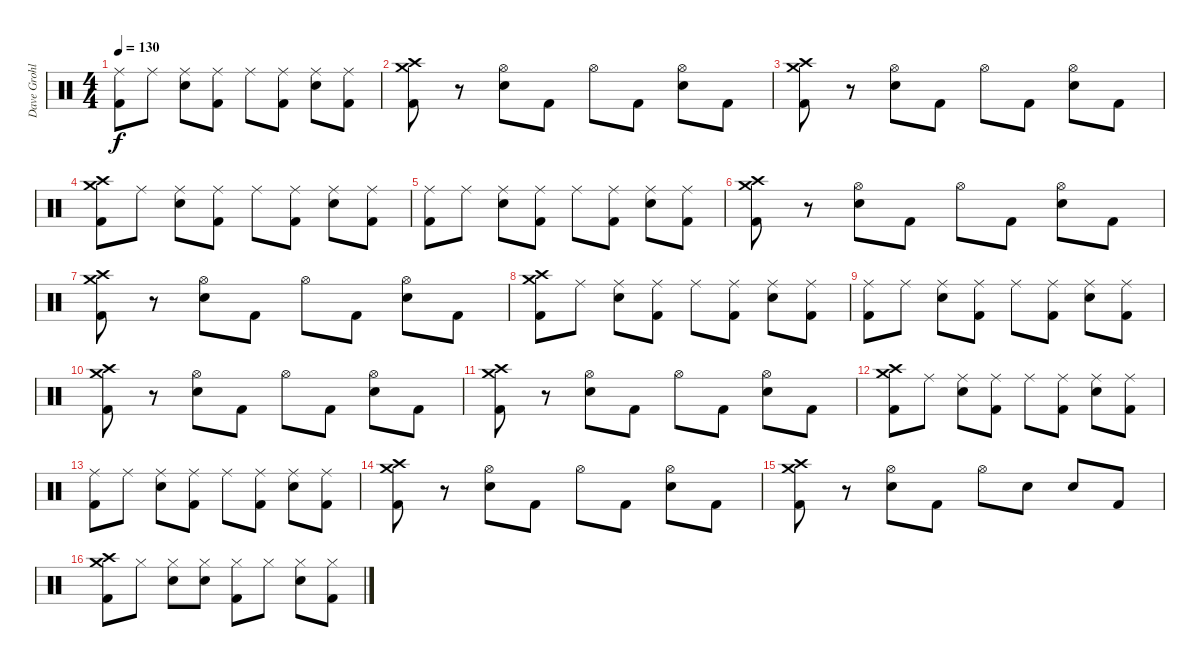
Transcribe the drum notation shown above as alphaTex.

\track ("Dave Grohl" "Dave Grohl") {instrument percussion}
\staff {score}
\articulation defaults
\ts (4 4)
\tempo 130
\clef neutral
\ks c
("Ride (middle)" "Kick (hit) 2").8{dy f} "Ride (middle)".8 ("Ride (middle)" "Snare (hit) 2").8 ("Ride (middle)" "Kick (hit) 2").8 "Ride (middle)".8 ("Ride (middle)" "Kick (hit) 2").8 ("Ride (middle)" "Snare (hit) 2").8 ("Ride (middle)" "Kick (hit) 2").8 |
("Crash high (hit)" "Crash medium (hit)" "Kick (hit) 2").8 r.8 ("Hi-Hat (open)" "Snare (hit) 2").8 "Kick (hit) 2".8 "Hi-Hat (open)".8 "Kick (hit) 2".8 ("Hi-Hat (open)" "Snare (hit) 2").8 "Kick (hit) 2".8 |
("Crash high (hit)" "Crash medium (hit)" "Kick (hit) 2").8 r.8 ("Hi-Hat (open)" "Snare (hit) 2").8 "Kick (hit) 2".8 "Hi-Hat (open)".8 "Kick (hit) 2".8 ("Hi-Hat (open)" "Snare (hit) 2").8 "Kick (hit) 2".8 |
("Crash high (hit)" "Crash medium (hit)" "Kick (hit) 2").8 "Ride (middle)".8 ("Ride (middle)" "Snare (hit) 2").8 ("Ride (middle)" "Kick (hit) 2").8 "Ride (middle)".8 ("Ride (middle)" "Kick (hit) 2").8 ("Ride (middle)" "Snare (hit) 2").8 ("Ride (middle)" "Kick (hit) 2").8 |
("Ride (middle)" "Kick (hit) 2").8 "Ride (middle)".8 ("Ride (middle)" "Snare (hit) 2").8 ("Ride (middle)" "Kick (hit) 2").8 "Ride (middle)".8 ("Ride (middle)" "Kick (hit) 2").8 ("Ride (middle)" "Snare (hit) 2").8 ("Ride (middle)" "Kick (hit) 2").8 |
("Crash high (hit)" "Crash medium (hit)" "Kick (hit) 2").8 r.8 ("Hi-Hat (open)" "Snare (hit) 2").8 "Kick (hit) 2".8 "Hi-Hat (open)".8 "Kick (hit) 2".8 ("Hi-Hat (open)" "Snare (hit) 2").8 "Kick (hit) 2".8 |
("Crash high (hit)" "Crash medium (hit)" "Kick (hit) 2").8 r.8 ("Hi-Hat (open)" "Snare (hit) 2").8 "Kick (hit) 2".8 "Hi-Hat (open)".8 "Kick (hit) 2".8 ("Hi-Hat (open)" "Snare (hit) 2").8 "Kick (hit) 2".8 |
("Crash high (hit)" "Crash medium (hit)" "Kick (hit) 2").8 "Ride (middle)".8 ("Ride (middle)" "Snare (hit) 2").8 ("Ride (middle)" "Kick (hit) 2").8 "Ride (middle)".8 ("Ride (middle)" "Kick (hit) 2").8 ("Ride (middle)" "Snare (hit) 2").8 ("Ride (middle)" "Kick (hit) 2").8 |
("Ride (middle)" "Kick (hit) 2").8 "Ride (middle)".8 ("Ride (middle)" "Snare (hit) 2").8 ("Ride (middle)" "Kick (hit) 2").8 "Ride (middle)".8 ("Ride (middle)" "Kick (hit) 2").8 ("Ride (middle)" "Snare (hit) 2").8 ("Ride (middle)" "Kick (hit) 2").8 |
("Crash high (hit)" "Crash medium (hit)" "Kick (hit) 2").8 r.8 ("Hi-Hat (open)" "Snare (hit) 2").8 "Kick (hit) 2".8 "Hi-Hat (open)".8 "Kick (hit) 2".8 ("Hi-Hat (open)" "Snare (hit) 2").8 "Kick (hit) 2".8 |
("Crash high (hit)" "Crash medium (hit)" "Kick (hit) 2").8 r.8 ("Hi-Hat (open)" "Snare (hit) 2").8 "Kick (hit) 2".8 "Hi-Hat (open)".8 "Kick (hit) 2".8 ("Hi-Hat (open)" "Snare (hit) 2").8 "Kick (hit) 2".8 |
("Crash high (hit)" "Crash medium (hit)" "Kick (hit) 2").8 "Ride (middle)".8 ("Ride (middle)" "Snare (hit) 2").8 ("Ride (middle)" "Kick (hit) 2").8 "Ride (middle)".8 ("Ride (middle)" "Kick (hit) 2").8 ("Ride (middle)" "Snare (hit) 2").8 ("Ride (middle)" "Kick (hit) 2").8 |
("Ride (middle)" "Kick (hit) 2").8 "Ride (middle)".8 ("Ride (middle)" "Snare (hit) 2").8 ("Ride (middle)" "Kick (hit) 2").8 "Ride (middle)".8 ("Ride (middle)" "Kick (hit) 2").8 ("Ride (middle)" "Snare (hit) 2").8 ("Ride (middle)" "Kick (hit) 2").8 |
("Crash high (hit)" "Crash medium (hit)" "Kick (hit) 2").8 r.8 ("Hi-Hat (open)" "Snare (hit) 2").8 "Kick (hit) 2".8 "Hi-Hat (open)".8 "Kick (hit) 2".8 ("Hi-Hat (open)" "Snare (hit) 2").8 "Kick (hit) 2".8 |
("Crash high (hit)" "Crash medium (hit)" "Kick (hit) 2").8 r.8 ("Hi-Hat (open)" "Snare (hit) 2").8 "Kick (hit) 2".8 "Hi-Hat (open)".8 "Snare (hit) 2".8 "Snare (hit) 2".8 "Kick (hit) 2".8 |
("Crash high (hit)" "Crash medium (hit)" "Kick (hit) 2").8 "Hi-Hat (closed)".8 ("Hi-Hat (closed)" "Snare (hit) 2").8 ("Hi-Hat (closed)" "Snare (hit) 2").8 ("Hi-Hat (closed)" "Kick (hit) 2").8 "Hi-Hat (closed)".8 ("Hi-Hat (closed)" "Snare (hit) 2").8 ("Hi-Hat (closed)" "Kick (hit) 2").8
